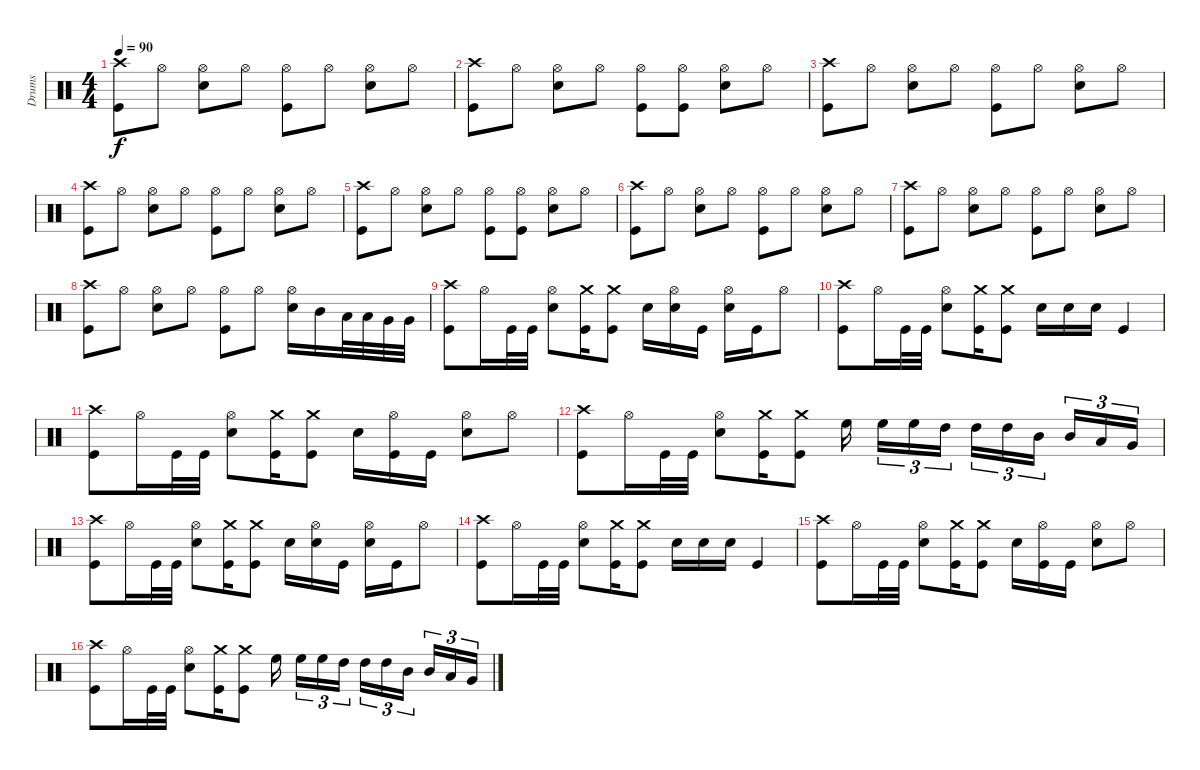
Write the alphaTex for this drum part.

\track ("Drums" "Drums") {instrument percussion}
\staff {score}
\articulation defaults
\ts (4 4)
\tempo 90
\clef neutral
\ks c
("Crash high (hit)" "Kick (hit)").8{dy f} "Hi-Hat (open)".8 ("Hi-Hat (open)" "Electric Snare (hit)").8 "Hi-Hat (open)".8 ("Hi-Hat (open)" "Kick (hit)").8 "Hi-Hat (open)".8 ("Hi-Hat (open)" "Electric Snare (hit)").8 "Hi-Hat (open)".8 |
("Crash high (hit)" "Kick (hit)").8 "Hi-Hat (open)".8 ("Hi-Hat (open)" "Electric Snare (hit)").8 "Hi-Hat (open)".8 ("Hi-Hat (open)" "Kick (hit)").8 ("Hi-Hat (open)" "Kick (hit)").8 ("Hi-Hat (open)" "Electric Snare (hit)").8 "Hi-Hat (open)".8 |
("Crash high (hit)" "Kick (hit)").8 "Hi-Hat (open)".8 ("Hi-Hat (open)" "Electric Snare (hit)").8 "Hi-Hat (open)".8 ("Hi-Hat (open)" "Kick (hit)").8 "Hi-Hat (open)".8 ("Hi-Hat (open)" "Electric Snare (hit)").8 "Hi-Hat (open)".8 |
("Crash high (hit)" "Kick (hit)").8 "Hi-Hat (open)".8 ("Hi-Hat (open)" "Electric Snare (hit)").8 "Hi-Hat (open)".8 ("Hi-Hat (open)" "Kick (hit)").8 "Hi-Hat (open)".8 ("Hi-Hat (open)" "Electric Snare (hit)").8 "Hi-Hat (open)".8 |
("Crash high (hit)" "Kick (hit)").8 "Hi-Hat (open)".8 ("Hi-Hat (open)" "Electric Snare (hit)").8 "Hi-Hat (open)".8 ("Hi-Hat (open)" "Kick (hit)").8 ("Hi-Hat (open)" "Kick (hit)").8 ("Hi-Hat (open)" "Electric Snare (hit)").8 "Hi-Hat (open)".8 |
("Crash high (hit)" "Kick (hit)").8 "Hi-Hat (open)".8 ("Hi-Hat (open)" "Electric Snare (hit)").8 "Hi-Hat (open)".8 ("Hi-Hat (open)" "Kick (hit)").8 "Hi-Hat (open)".8 ("Hi-Hat (open)" "Electric Snare (hit)").8 "Hi-Hat (open)".8 |
("Crash high (hit)" "Kick (hit)").8 "Hi-Hat (open)".8 ("Hi-Hat (open)" "Electric Snare (hit)").8 "Hi-Hat (open)".8 ("Hi-Hat (open)" "Kick (hit)").8 "Hi-Hat (open)".8 ("Hi-Hat (open)" "Electric Snare (hit)").8 "Hi-Hat (open)".8 |
("Crash high (hit)" "Kick (hit)").8 "Hi-Hat (open)".8 ("Hi-Hat (open)" "Electric Snare (hit)").8 "Hi-Hat (open)".8 ("Hi-Hat (open)" "Kick (hit)").8 "Hi-Hat (open)".8 ("Hi-Hat (open)" "Electric Snare (hit)").16 "Mid Tom (hit)".16 "Low Tom (hit)".32 "Low Tom (hit)".32 "Very Low Tom (hit)".32 "Very Low Tom (hit)".32 |
("Crash high (hit)" "Kick (hit)").8 "Hi-Hat (open)".16 "Kick (hit)".32 "Kick (hit)".32 ("Hi-Hat (open)" "Electric Snare (hit)").8 ("Crash medium (hit)" "Kick (hit)").16 ("Crash medium (hit)" "Kick (hit)").8 "Electric Snare (hit)".16 ("Hi-Hat (open)" "Electric Snare (hit)").16 "Kick (hit)".16 ("Hi-Hat (open)" "Electric Snare (hit)").16 "Kick (hit)".16 "Hi-Hat (open)".8 |
("Crash high (hit)" "Kick (hit)").8 "Hi-Hat (open)".16 "Kick (hit)".32 "Kick (hit)".32 ("Hi-Hat (open)" "Electric Snare (hit)").8 ("Crash medium (hit)" "Kick (hit)").16 ("Crash medium (hit)" "Kick (hit)").8 "Electric Snare (hit)".16 "Electric Snare (hit)".16 "Electric Snare (hit)".16 "Kick (hit)".4 |
("Crash high (hit)" "Kick (hit)").8 "Hi-Hat (open)".16 "Kick (hit)".32 "Kick (hit)".32 ("Hi-Hat (open)" "Electric Snare (hit)").8 ("Crash medium (hit)" "Kick (hit)").16 ("Crash medium (hit)" "Kick (hit)").8 "Electric Snare (hit)".16 ("Hi-Hat (open)" "Kick (hit)").16 "Kick (hit)".16 ("Hi-Hat (open)" "Electric Snare (hit)").8 "Hi-Hat (open)".8 |
("Crash high (hit)" "Kick (hit)").8 "Hi-Hat (open)".16 "Kick (hit)".32 "Kick (hit)".32 ("Hi-Hat (open)" "Electric Snare (hit)").8 ("Crash medium (hit)" "Kick (hit)").16 ("Crash medium (hit)" "Kick (hit)").8 "High Floor Tom (hit)".16 "High Floor Tom (hit)".16{tu (3 2)} "High Floor Tom (hit)".16{tu (3 2)} "High Tom (hit)".16{tu (3 2)} "High Tom (hit)".16{tu (3 2)} "High Tom (hit)".16{tu (3 2)} "Mid Tom (hit)".16{tu (3 2)} "Mid Tom (hit)".16{tu (3 2)} "Low Tom (hit)".16{tu (3 2)} "Very Low Tom (hit)".16{tu (3 2)} |
("Crash high (hit)" "Kick (hit)").8 "Hi-Hat (open)".16 "Kick (hit)".32 "Kick (hit)".32 ("Hi-Hat (open)" "Electric Snare (hit)").8 ("Crash medium (hit)" "Kick (hit)").16 ("Crash medium (hit)" "Kick (hit)").8 "Electric Snare (hit)".16 ("Hi-Hat (open)" "Electric Snare (hit)").16 "Kick (hit)".16 ("Hi-Hat (open)" "Electric Snare (hit)").16 "Kick (hit)".16 "Hi-Hat (open)".8 |
("Crash high (hit)" "Kick (hit)").8 "Hi-Hat (open)".16 "Kick (hit)".32 "Kick (hit)".32 ("Hi-Hat (open)" "Electric Snare (hit)").8 ("Crash medium (hit)" "Kick (hit)").16 ("Crash medium (hit)" "Kick (hit)").8 "Electric Snare (hit)".16 "Electric Snare (hit)".16 "Electric Snare (hit)".16 "Kick (hit)".4 |
("Crash high (hit)" "Kick (hit)").8 "Hi-Hat (open)".16 "Kick (hit)".32 "Kick (hit)".32 ("Hi-Hat (open)" "Electric Snare (hit)").8 ("Crash medium (hit)" "Kick (hit)").16 ("Crash medium (hit)" "Kick (hit)").8 "Electric Snare (hit)".16 ("Hi-Hat (open)" "Kick (hit)").16 "Kick (hit)".16 ("Hi-Hat (open)" "Electric Snare (hit)").8 "Hi-Hat (open)".8 |
("Crash high (hit)" "Kick (hit)").8 "Hi-Hat (open)".16 "Kick (hit)".32 "Kick (hit)".32 ("Hi-Hat (open)" "Electric Snare (hit)").8 ("Crash medium (hit)" "Kick (hit)").16 ("Crash medium (hit)" "Kick (hit)").8 "High Floor Tom (hit)".16 "High Floor Tom (hit)".16{tu (3 2)} "High Floor Tom (hit)".16{tu (3 2)} "High Tom (hit)".16{tu (3 2)} "High Tom (hit)".16{tu (3 2)} "High Tom (hit)".16{tu (3 2)} "Mid Tom (hit)".16{tu (3 2)} "Mid Tom (hit)".16{tu (3 2)} "Low Tom (hit)".16{tu (3 2)} "Very Low Tom (hit)".16{tu (3 2)}
